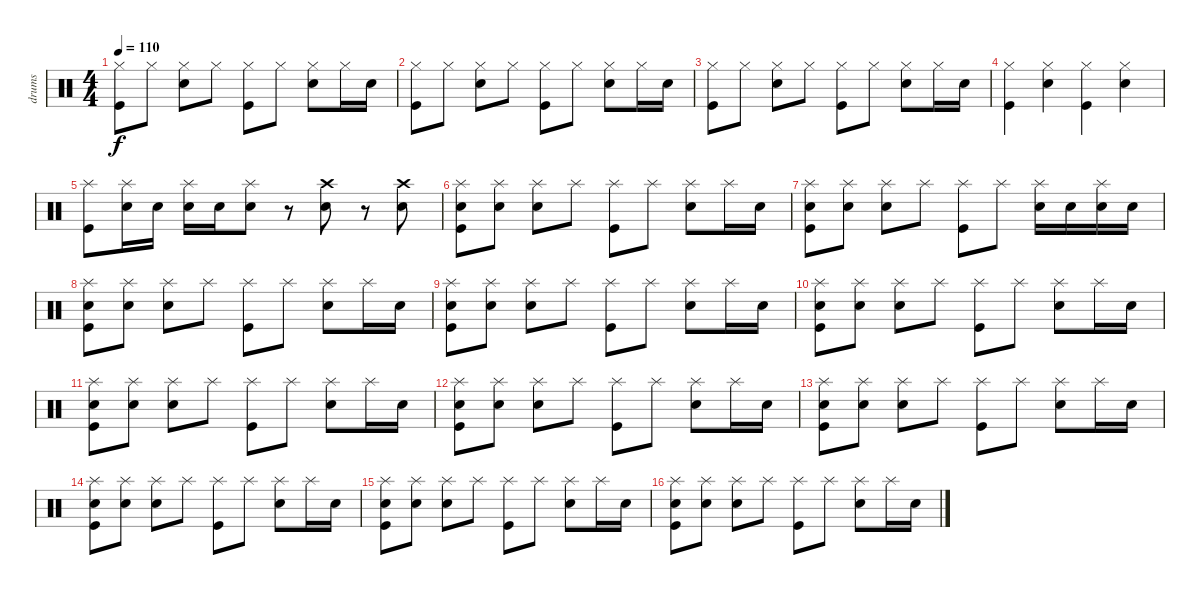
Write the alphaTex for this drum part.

\track ("drums" "drums") {instrument percussion}
\staff {score}
\articulation defaults
\ts (4 4)
\tempo 110
\clef neutral
\ks c
("Hi-Hat (closed)" "Kick (hit)").8{dy f} "Hi-Hat (closed)".8 ("Hi-Hat (closed)" "Snare (hit) 2").8 "Hi-Hat (closed)".8 ("Hi-Hat (closed)" "Kick (hit)").8 "Hi-Hat (closed)".8 ("Hi-Hat (closed)" "Snare (hit) 2").8 "Hi-Hat (closed)".16 "Snare (hit) 2".16 |
("Hi-Hat (closed)" "Kick (hit)").8 "Hi-Hat (closed)".8 ("Hi-Hat (closed)" "Snare (hit) 2").8 "Hi-Hat (closed)".8 ("Hi-Hat (closed)" "Kick (hit)").8 "Hi-Hat (closed)".8 ("Hi-Hat (closed)" "Snare (hit) 2").8 "Hi-Hat (closed)".16 "Snare (hit) 2".16 |
("Hi-Hat (closed)" "Kick (hit)").8 "Hi-Hat (closed)".8 ("Hi-Hat (closed)" "Snare (hit) 2").8 "Hi-Hat (closed)".8 ("Hi-Hat (closed)" "Kick (hit)").8 "Hi-Hat (closed)".8 ("Hi-Hat (closed)" "Snare (hit) 2").8 "Hi-Hat (closed)".16 "Snare (hit) 2".16 |
("Hi-Hat (closed)" "Kick (hit)").4 ("Hi-Hat (closed)" "Snare (hit) 2").4 ("Hi-Hat (closed)" "Kick (hit)").4 ("Hi-Hat (closed)" "Snare (hit) 2").4 |
("Splash (hit)" "Kick (hit)").8 ("Splash (hit)" "Snare (hit) 2").16 "Snare (hit) 2".16 ("Splash (hit)" "Snare (hit) 2").16 "Snare (hit) 2".16 ("Splash (hit)" "Snare (hit) 2").8 r.8 ("Crash high (hit)" "Snare (hit) 2").8 r.8 ("Crash high (hit)" "Snare (hit) 2").8 |
("Splash (hit)" "Snare (hit) 2" "Kick (hit)").8 ("Splash (hit)" "Snare (hit) 2").8 ("Splash (hit)" "Snare (hit) 2").8 "Splash (hit)".8 ("Splash (hit)" "Kick (hit)").8 "Splash (hit)".8 ("Splash (hit)" "Snare (hit) 2").8 "Splash (hit)".16 "Snare (hit) 2".16 |
("Splash (hit)" "Snare (hit) 2" "Kick (hit)").8 ("Splash (hit)" "Snare (hit) 2").8 ("Splash (hit)" "Snare (hit) 2").8 "Splash (hit)".8 ("Splash (hit)" "Kick (hit)").8 "Splash (hit)".8 ("Splash (hit)" "Snare (hit) 2").16 "Snare (hit) 2".16 ("Splash (hit)" "Snare (hit) 2").16 "Snare (hit) 2".16 |
("Splash (hit)" "Snare (hit) 2" "Kick (hit)").8 ("Splash (hit)" "Snare (hit) 2").8 ("Splash (hit)" "Snare (hit) 2").8 "Splash (hit)".8 ("Splash (hit)" "Kick (hit)").8 "Splash (hit)".8 ("Splash (hit)" "Snare (hit) 2").8 "Splash (hit)".16 "Snare (hit) 2".16 |
("Splash (hit)" "Snare (hit) 2" "Kick (hit)").8 ("Splash (hit)" "Snare (hit) 2").8 ("Splash (hit)" "Snare (hit) 2").8 "Splash (hit)".8 ("Splash (hit)" "Kick (hit)").8 "Splash (hit)".8 ("Splash (hit)" "Snare (hit) 2").8 "Splash (hit)".16 "Snare (hit) 2".16 |
("Splash (hit)" "Snare (hit) 2" "Kick (hit)").8 ("Splash (hit)" "Snare (hit) 2").8 ("Splash (hit)" "Snare (hit) 2").8 "Splash (hit)".8 ("Splash (hit)" "Kick (hit)").8 "Splash (hit)".8 ("Splash (hit)" "Snare (hit) 2").8 "Splash (hit)".16 "Snare (hit) 2".16 |
("Splash (hit)" "Snare (hit) 2" "Kick (hit)").8 ("Splash (hit)" "Snare (hit) 2").8 ("Splash (hit)" "Snare (hit) 2").8 "Splash (hit)".8 ("Splash (hit)" "Kick (hit)").8 "Splash (hit)".8 ("Splash (hit)" "Snare (hit) 2").8 "Splash (hit)".16 "Snare (hit) 2".16 |
("Splash (hit)" "Snare (hit) 2" "Kick (hit)").8 ("Splash (hit)" "Snare (hit) 2").8 ("Splash (hit)" "Snare (hit) 2").8 "Splash (hit)".8 ("Splash (hit)" "Kick (hit)").8 "Splash (hit)".8 ("Splash (hit)" "Snare (hit) 2").8 "Splash (hit)".16 "Snare (hit) 2".16 |
("Splash (hit)" "Snare (hit) 2" "Kick (hit)").8 ("Splash (hit)" "Snare (hit) 2").8 ("Splash (hit)" "Snare (hit) 2").8 "Splash (hit)".8 ("Splash (hit)" "Kick (hit)").8 "Splash (hit)".8 ("Splash (hit)" "Snare (hit) 2").8 "Splash (hit)".16 "Snare (hit) 2".16 |
("Splash (hit)" "Snare (hit) 2" "Kick (hit)").8 ("Splash (hit)" "Snare (hit) 2").8 ("Splash (hit)" "Snare (hit) 2").8 "Splash (hit)".8 ("Splash (hit)" "Kick (hit)").8 "Splash (hit)".8 ("Splash (hit)" "Snare (hit) 2").8 "Splash (hit)".16 "Snare (hit) 2".16 |
("Splash (hit)" "Snare (hit) 2" "Kick (hit)").8 ("Splash (hit)" "Snare (hit) 2").8 ("Splash (hit)" "Snare (hit) 2").8 "Splash (hit)".8 ("Splash (hit)" "Kick (hit)").8 "Splash (hit)".8 ("Splash (hit)" "Snare (hit) 2").8 "Splash (hit)".16 "Snare (hit) 2".16 |
("Splash (hit)" "Snare (hit) 2" "Kick (hit)").8 ("Splash (hit)" "Snare (hit) 2").8 ("Splash (hit)" "Snare (hit) 2").8 "Splash (hit)".8 ("Splash (hit)" "Kick (hit)").8 "Splash (hit)".8 ("Splash (hit)" "Snare (hit) 2").8 "Splash (hit)".16 "Snare (hit) 2".16
